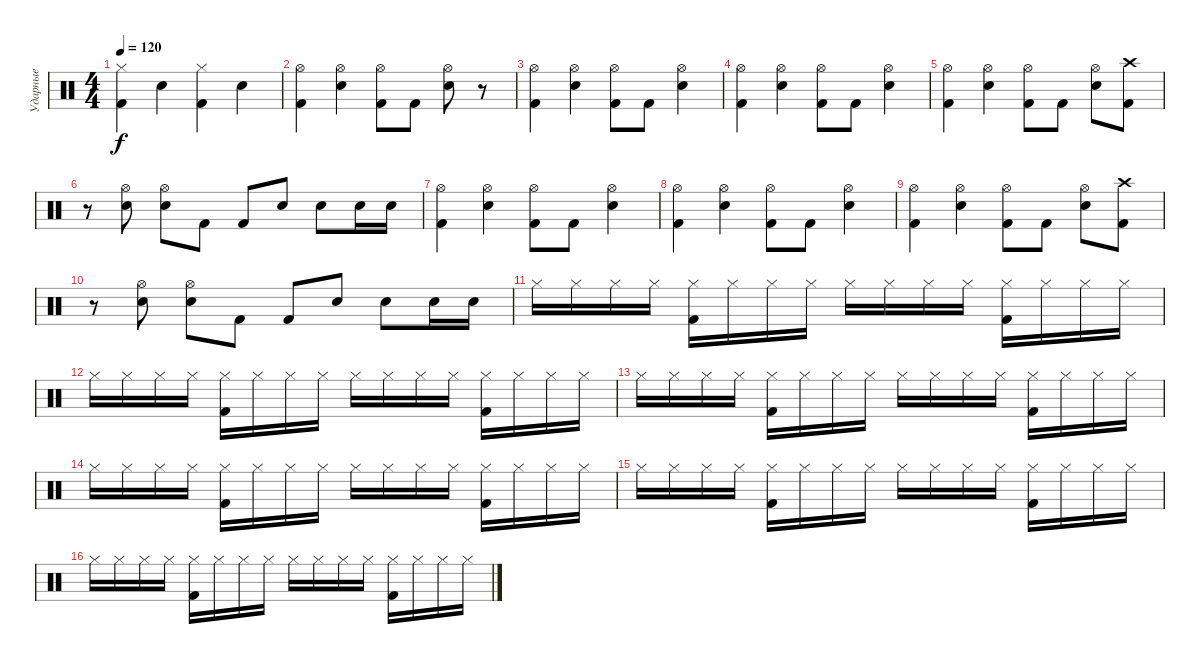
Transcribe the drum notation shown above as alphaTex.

\track ("Ударные" "Ударные") {instrument percussion}
\staff {score}
\articulation defaults
\ts (4 4)
\tempo 120
\clef neutral
\ks c
("Kick (hit) 2" "Hi-Hat (closed)").4{dy f} "Snare (hit) 2".4 ("Kick (hit) 2" "Hi-Hat (closed)").4 "Snare (hit) 2".4 |
("Kick (hit) 2" "Hi-Hat (open)").4 ("Snare (hit) 2" "Hi-Hat (open)").4 ("Kick (hit) 2" "Hi-Hat (open)").8 "Kick (hit) 2".8 ("Snare (hit) 2" "Hi-Hat (open)").8 r.8 |
("Kick (hit) 2" "Hi-Hat (open)").4 ("Snare (hit) 2" "Hi-Hat (open)").4 ("Kick (hit) 2" "Hi-Hat (open)").8 "Kick (hit) 2".8 ("Snare (hit) 2" "Hi-Hat (open)").4 |
("Kick (hit) 2" "Hi-Hat (open)").4 ("Snare (hit) 2" "Hi-Hat (open)").4 ("Kick (hit) 2" "Hi-Hat (open)").8 "Kick (hit) 2".8 ("Snare (hit) 2" "Hi-Hat (open)").4 |
("Kick (hit) 2" "Hi-Hat (open)").4 ("Snare (hit) 2" "Hi-Hat (open)").4 ("Kick (hit) 2" "Hi-Hat (open)").8 "Kick (hit) 2".8 ("Snare (hit) 2" "Hi-Hat (open)").8 ("Kick (hit) 2" "Crash high (hit)").8 |
r.8 ("Snare (hit) 2" "Hi-Hat (open)").8 ("Snare (hit) 2" "Hi-Hat (open)").8 "Kick (hit) 2".8 "Kick (hit) 2".8 "Snare (hit) 2".8 "Snare (hit) 2".8 "Snare (hit) 2".16 "Snare (hit) 2".16 |
("Kick (hit) 2" "Hi-Hat (open)").4 ("Snare (hit) 2" "Hi-Hat (open)").4 ("Kick (hit) 2" "Hi-Hat (open)").8 "Kick (hit) 2".8 ("Snare (hit) 2" "Hi-Hat (open)").4 |
("Kick (hit) 2" "Hi-Hat (open)").4 ("Snare (hit) 2" "Hi-Hat (open)").4 ("Kick (hit) 2" "Hi-Hat (open)").8 "Kick (hit) 2".8 ("Snare (hit) 2" "Hi-Hat (open)").4 |
("Kick (hit) 2" "Hi-Hat (open)").4 ("Snare (hit) 2" "Hi-Hat (open)").4 ("Kick (hit) 2" "Hi-Hat (open)").8 "Kick (hit) 2".8 ("Snare (hit) 2" "Hi-Hat (open)").8 ("Kick (hit) 2" "Crash high (hit)").8 |
r.8 ("Snare (hit) 2" "Hi-Hat (open)").8 ("Snare (hit) 2" "Hi-Hat (open)").8 "Kick (hit) 2".8 "Kick (hit) 2".8 "Snare (hit) 2".8 "Snare (hit) 2".8 "Snare (hit) 2".16 "Snare (hit) 2".16 |
"Hi-Hat (closed)".16 "Hi-Hat (closed)".16 "Hi-Hat (closed)".16 "Hi-Hat (closed)".16 ("Hi-Hat (closed)" "Kick (hit) 2").16 "Hi-Hat (closed)".16 "Hi-Hat (closed)".16 "Hi-Hat (closed)".16 "Hi-Hat (closed)".16 "Hi-Hat (closed)".16 "Hi-Hat (closed)".16 "Hi-Hat (closed)".16 ("Hi-Hat (closed)" "Kick (hit) 2").16 "Hi-Hat (closed)".16 "Hi-Hat (closed)".16 "Hi-Hat (closed)".16 |
"Hi-Hat (closed)".16 "Hi-Hat (closed)".16 "Hi-Hat (closed)".16 "Hi-Hat (closed)".16 ("Hi-Hat (closed)" "Kick (hit) 2").16 "Hi-Hat (closed)".16 "Hi-Hat (closed)".16 "Hi-Hat (closed)".16 "Hi-Hat (closed)".16 "Hi-Hat (closed)".16 "Hi-Hat (closed)".16 "Hi-Hat (closed)".16 ("Hi-Hat (closed)" "Kick (hit) 2").16 "Hi-Hat (closed)".16 "Hi-Hat (closed)".16 "Hi-Hat (closed)".16 |
"Hi-Hat (closed)".16 "Hi-Hat (closed)".16 "Hi-Hat (closed)".16 "Hi-Hat (closed)".16 ("Hi-Hat (closed)" "Kick (hit) 2").16 "Hi-Hat (closed)".16 "Hi-Hat (closed)".16 "Hi-Hat (closed)".16 "Hi-Hat (closed)".16 "Hi-Hat (closed)".16 "Hi-Hat (closed)".16 "Hi-Hat (closed)".16 ("Hi-Hat (closed)" "Kick (hit) 2").16 "Hi-Hat (closed)".16 "Hi-Hat (closed)".16 "Hi-Hat (closed)".16 |
"Hi-Hat (closed)".16 "Hi-Hat (closed)".16 "Hi-Hat (closed)".16 "Hi-Hat (closed)".16 ("Hi-Hat (closed)" "Kick (hit) 2").16 "Hi-Hat (closed)".16 "Hi-Hat (closed)".16 "Hi-Hat (closed)".16 "Hi-Hat (closed)".16 "Hi-Hat (closed)".16 "Hi-Hat (closed)".16 "Hi-Hat (closed)".16 ("Hi-Hat (closed)" "Kick (hit) 2").16 "Hi-Hat (closed)".16 "Hi-Hat (closed)".16 "Hi-Hat (closed)".16 |
"Hi-Hat (closed)".16 "Hi-Hat (closed)".16 "Hi-Hat (closed)".16 "Hi-Hat (closed)".16 ("Hi-Hat (closed)" "Kick (hit) 2").16 "Hi-Hat (closed)".16 "Hi-Hat (closed)".16 "Hi-Hat (closed)".16 "Hi-Hat (closed)".16 "Hi-Hat (closed)".16 "Hi-Hat (closed)".16 "Hi-Hat (closed)".16 ("Hi-Hat (closed)" "Kick (hit) 2").16 "Hi-Hat (closed)".16 "Hi-Hat (closed)".16 "Hi-Hat (closed)".16 |
"Hi-Hat (closed)".16 "Hi-Hat (closed)".16 "Hi-Hat (closed)".16 "Hi-Hat (closed)".16 ("Hi-Hat (closed)" "Kick (hit) 2").16 "Hi-Hat (closed)".16 "Hi-Hat (closed)".16 "Hi-Hat (closed)".16 "Hi-Hat (closed)".16 "Hi-Hat (closed)".16 "Hi-Hat (closed)".16 "Hi-Hat (closed)".16 ("Hi-Hat (closed)" "Kick (hit) 2").16 "Hi-Hat (closed)".16 "Hi-Hat (closed)".16 "Hi-Hat (closed)".16
